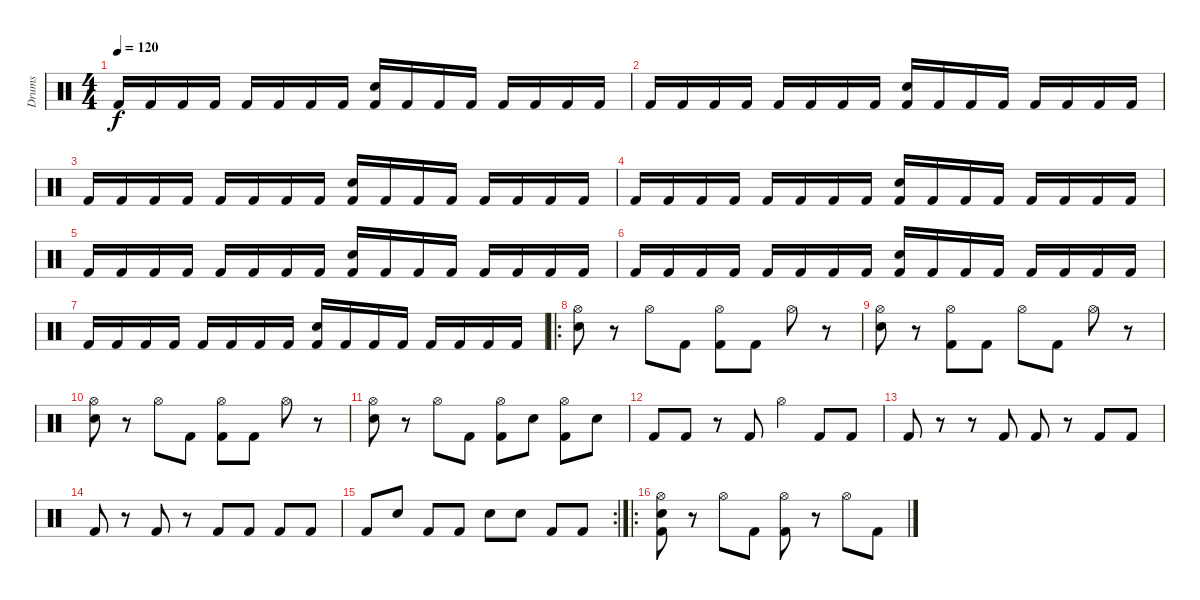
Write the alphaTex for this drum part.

\track ("Drums" "Drums") {instrument percussion}
\staff {score}
\articulation defaults
\ts (4 4)
\tempo 120
\clef neutral
\ks c "Kick (hit) 2".16{dy f} "Kick (hit) 2".16 "Kick (hit) 2".16 "Kick (hit) 2".16 "Kick (hit) 2".16 "Kick (hit) 2".16 "Kick (hit) 2".16 "Kick (hit) 2".16
("Electric Snare (hit)" "Kick (hit) 2").16 "Kick (hit) 2".16 "Kick (hit) 2".16 "Kick (hit) 2".16 "Kick (hit) 2".16 "Kick (hit) 2".16 "Kick (hit) 2".16 "Kick (hit) 2".16 |
"Kick (hit) 2".16 "Kick (hit) 2".16 "Kick (hit) 2".16 "Kick (hit) 2".16 "Kick (hit) 2".16 "Kick (hit) 2".16 "Kick (hit) 2".16 "Kick (hit) 2".16 ("Electric Snare (hit)" "Kick (hit) 2").16 "Kick (hit) 2".16 "Kick (hit) 2".16 "Kick (hit) 2".16 "Kick (hit) 2".16 "Kick (hit) 2".16 "Kick (hit) 2".16 "Kick (hit) 2".16 |
"Kick (hit) 2".16 "Kick (hit) 2".16 "Kick (hit) 2".16 "Kick (hit) 2".16 "Kick (hit) 2".16 "Kick (hit) 2".16 "Kick (hit) 2".16 "Kick (hit) 2".16 ("Electric Snare (hit)" "Kick (hit) 2").16 "Kick (hit) 2".16 "Kick (hit) 2".16 "Kick (hit) 2".16 "Kick (hit) 2".16 "Kick (hit) 2".16 "Kick (hit) 2".16 "Kick (hit) 2".16 |
"Kick (hit) 2".16 "Kick (hit) 2".16 "Kick (hit) 2".16 "Kick (hit) 2".16 "Kick (hit) 2".16 "Kick (hit) 2".16 "Kick (hit) 2".16 "Kick (hit) 2".16 ("Electric Snare (hit)" "Kick (hit) 2").16 "Kick (hit) 2".16 "Kick (hit) 2".16 "Kick (hit) 2".16 "Kick (hit) 2".16 "Kick (hit) 2".16 "Kick (hit) 2".16 "Kick (hit) 2".16 |
"Kick (hit) 2".16 "Kick (hit) 2".16 "Kick (hit) 2".16 "Kick (hit) 2".16 "Kick (hit) 2".16 "Kick (hit) 2".16 "Kick (hit) 2".16 "Kick (hit) 2".16 ("Electric Snare (hit)" "Kick (hit) 2").16 "Kick (hit) 2".16 "Kick (hit) 2".16 "Kick (hit) 2".16 "Kick (hit) 2".16 "Kick (hit) 2".16 "Kick (hit) 2".16 "Kick (hit) 2".16 |
"Kick (hit) 2".16 "Kick (hit) 2".16 "Kick (hit) 2".16 "Kick (hit) 2".16 "Kick (hit) 2".16 "Kick (hit) 2".16 "Kick (hit) 2".16 "Kick (hit) 2".16 ("Electric Snare (hit)" "Kick (hit) 2").16 "Kick (hit) 2".16 "Kick (hit) 2".16 "Kick (hit) 2".16 "Kick (hit) 2".16 "Kick (hit) 2".16 "Kick (hit) 2".16 "Kick (hit) 2".16 |
"Kick (hit) 2".16 "Kick (hit) 2".16 "Kick (hit) 2".16 "Kick (hit) 2".16 "Kick (hit) 2".16 "Kick (hit) 2".16 "Kick (hit) 2".16 "Kick (hit) 2".16 ("Electric Snare (hit)" "Kick (hit) 2").16 "Kick (hit) 2".16 "Kick (hit) 2".16 "Kick (hit) 2".16 "Kick (hit) 2".16 "Kick (hit) 2".16 "Kick (hit) 2".16 "Kick (hit) 2".16 |
\ro
("Hi-Hat (open)" "Electric Snare (hit)").8 r.8 "Hi-Hat (open)".8 "Kick (hit) 2".8 ("Hi-Hat (open)" "Kick (hit) 2").8 "Kick (hit) 2".8 "Hi-Hat (open)".8 r.8 |
("Hi-Hat (open)" "Electric Snare (hit)").8 r.8 ("Hi-Hat (open)" "Kick (hit) 2").8 "Kick (hit) 2".8 "Hi-Hat (open)".8 "Kick (hit) 2".8 "Hi-Hat (open)".8 r.8 |
("Hi-Hat (open)" "Electric Snare (hit)").8 r.8 "Hi-Hat (open)".8 "Kick (hit) 2".8 ("Hi-Hat (open)" "Kick (hit) 2").8 "Kick (hit) 2".8 "Hi-Hat (open)".8 r.8 |
("Hi-Hat (open)" "Electric Snare (hit)").8 r.8 "Hi-Hat (open)".8 "Kick (hit) 2".8 ("Hi-Hat (open)" "Kick (hit) 2").8 "Electric Snare (hit)".8 ("Hi-Hat (open)" "Kick (hit) 2").8 "Electric Snare (hit)".8 |
"Kick (hit) 2".8 "Kick (hit) 2".8 r.8 "Kick (hit) 2".8 "Hi-Hat (open)".4 "Kick (hit) 2".8 "Kick (hit) 2".8 |
"Kick (hit) 2".8 r.8 r.8 "Kick (hit) 2".8 "Kick (hit) 2".8 r.8 "Kick (hit) 2".8 "Kick (hit) 2".8 |
"Kick (hit) 2".8 r.8 "Kick (hit) 2".8 r.8 "Kick (hit) 2".8 "Kick (hit) 2".8 "Kick (hit) 2".8 "Kick (hit) 2".8 |
\rc 2 "Kick (hit) 2".8 "Electric Snare (hit)".8 "Kick (hit) 2".8 "Kick (hit) 2".8 "Electric Snare (hit)".8 "Electric Snare (hit)".8 "Kick (hit) 2".8 "Kick (hit) 2".8
|
\ro
("Hi-Hat (open)" "Electric Snare (hit)" "Kick (hit) 2").8 r.8 "Hi-Hat (open)".8 "Kick (hit) 2".8 ("Hi-Hat (open)" "Kick (hit) 2").8 r.8 "Hi-Hat (open)".8 "Kick (hit) 2".8
